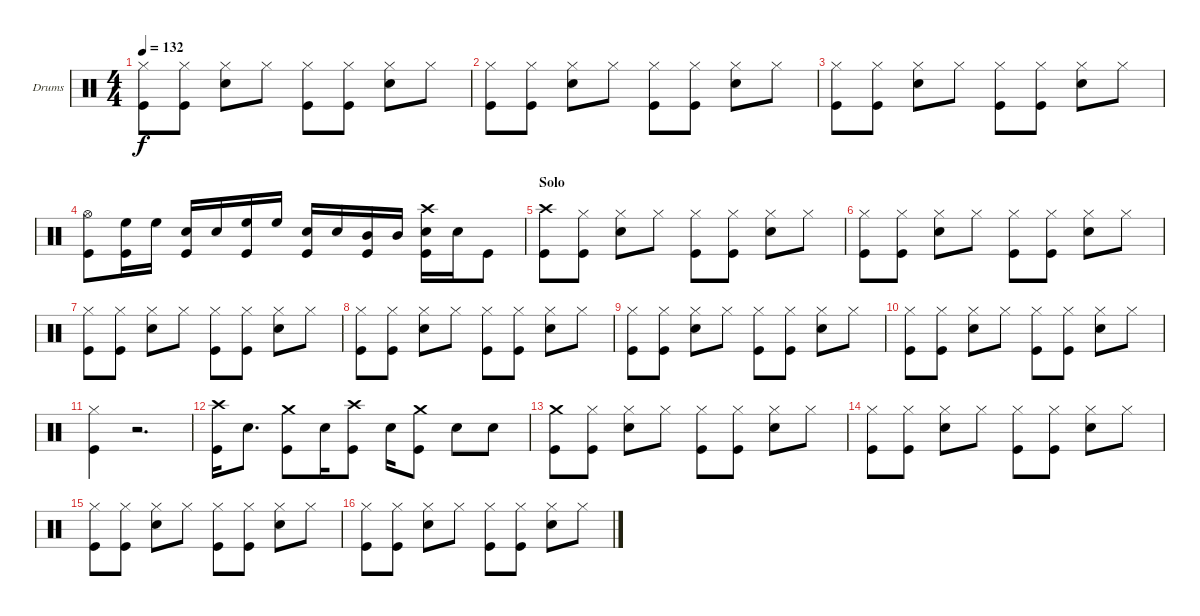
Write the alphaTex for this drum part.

\bracketExtendMode groupsimilarinstruments
\firstSystemTrackNameOrientation horizontal
\otherSystemsTrackNameOrientation horizontal
\track ("Drumkit" "Drums") {instrument percussion}
\staff {score}
\articulation defaults
\ts (4 4)
\tempo 132
\clef neutral
\ks c
("Kick (hit)" "Hi-Hat (closed)").8{dy f} ("Kick (hit)" "Hi-Hat (closed)").8 ("Snare (hit) 2" "Hi-Hat (closed)").8 "Hi-Hat (closed)".8 ("Kick (hit)" "Hi-Hat (closed)").8 ("Kick (hit)" "Hi-Hat (closed)").8 ("Snare (hit) 2" "Hi-Hat (closed)").8 "Hi-Hat (closed)".8 |
("Kick (hit)" "Hi-Hat (closed)").8 ("Kick (hit)" "Hi-Hat (closed)").8 ("Snare (hit) 2" "Hi-Hat (closed)").8 "Hi-Hat (closed)".8 ("Kick (hit)" "Hi-Hat (closed)").8 ("Kick (hit)" "Hi-Hat (closed)").8 ("Snare (hit) 2" "Hi-Hat (closed)").8 "Hi-Hat (closed)".8 |
("Kick (hit)" "Hi-Hat (closed)").8 ("Kick (hit)" "Hi-Hat (closed)").8 ("Snare (hit) 2" "Hi-Hat (closed)").8 "Hi-Hat (closed)".8 ("Kick (hit)" "Hi-Hat (closed)").8 ("Kick (hit)" "Hi-Hat (closed)").8 ("Snare (hit) 2" "Hi-Hat (closed)").8 "Hi-Hat (closed)".8 |
("Kick (hit)" "Hi-Hat (open)").8 ("Kick (hit)" "High Floor Tom (hit)").16 "High Floor Tom (hit)".16 ("Kick (hit)" "Snare (hit) 2").16 "Snare (hit) 2".16 ("Kick (hit)" "High Floor Tom (hit)").16 "High Floor Tom (hit)".16 ("Kick (hit)" "Snare (hit) 2").16 "Snare (hit) 2".16 ("Kick (hit)" "Mid Tom (hit)").16 "Mid Tom (hit)".16 ("Kick (hit)" "Snare (hit) 2" "Crash high (hit)").16 "Snare (hit) 2".16 "Kick (hit)".8 |
\section ("" "Solo")
("Kick (hit)" "Crash high (hit)").8 ("Kick (hit)" "Hi-Hat (closed)").8 ("Snare (hit) 2" "Hi-Hat (closed)").8 "Hi-Hat (closed)".8 ("Kick (hit)" "Hi-Hat (closed)").8 ("Kick (hit)" "Hi-Hat (closed)").8 ("Snare (hit) 2" "Hi-Hat (closed)").8 "Hi-Hat (closed)".8 |
("Kick (hit)" "Hi-Hat (closed)").8 ("Kick (hit)" "Hi-Hat (closed)").8 ("Snare (hit) 2" "Hi-Hat (closed)").8 "Hi-Hat (closed)".8 ("Kick (hit)" "Hi-Hat (closed)").8 ("Kick (hit)" "Hi-Hat (closed)").8 ("Snare (hit) 2" "Hi-Hat (closed)").8 "Hi-Hat (closed)".8 |
("Kick (hit)" "Hi-Hat (closed)").8 ("Kick (hit)" "Hi-Hat (closed)").8 ("Snare (hit) 2" "Hi-Hat (closed)").8 "Hi-Hat (closed)".8 ("Kick (hit)" "Hi-Hat (closed)").8 ("Kick (hit)" "Hi-Hat (closed)").8 ("Snare (hit) 2" "Hi-Hat (closed)").8 "Hi-Hat (closed)".8 |
("Kick (hit)" "Hi-Hat (closed)").8 ("Kick (hit)" "Hi-Hat (closed)").8 ("Snare (hit) 2" "Hi-Hat (closed)").8 "Hi-Hat (closed)".8 ("Kick (hit)" "Hi-Hat (closed)").8 ("Kick (hit)" "Hi-Hat (closed)").8 ("Snare (hit) 2" "Hi-Hat (closed)").8 "Hi-Hat (closed)".8 |
("Kick (hit)" "Hi-Hat (closed)").8 ("Kick (hit)" "Hi-Hat (closed)").8 ("Snare (hit) 2" "Hi-Hat (closed)").8 "Hi-Hat (closed)".8 ("Kick (hit)" "Hi-Hat (closed)").8 ("Kick (hit)" "Hi-Hat (closed)").8 ("Snare (hit) 2" "Hi-Hat (closed)").8 "Hi-Hat (closed)".8 |
("Kick (hit)" "Hi-Hat (closed)").8 ("Kick (hit)" "Hi-Hat (closed)").8 ("Snare (hit) 2" "Hi-Hat (closed)").8 "Hi-Hat (closed)".8 ("Kick (hit)" "Hi-Hat (closed)").8 ("Kick (hit)" "Hi-Hat (closed)").8 ("Snare (hit) 2" "Hi-Hat (closed)").8 "Hi-Hat (closed)".8 |
("Kick (hit)" "Hi-Hat (closed)").4 r.2{d} |
("Kick (hit)" "Crash high (hit)").16 "Snare (hit) 2".8{d} ("Kick (hit)" "Crash medium (hit)").8 "Snare (hit) 2".16 ("Kick (hit)" "Crash high (hit)").8 "Snare (hit) 2".16 ("Kick (hit)" "Crash medium (hit)").8 "Snare (hit) 2".8 "Snare (hit) 2".8 |
("Kick (hit)" "Crash medium (hit)").8 ("Kick (hit)" "Hi-Hat (closed)").8 ("Snare (hit) 2" "Hi-Hat (closed)").8 "Hi-Hat (closed)".8 ("Kick (hit)" "Hi-Hat (closed)").8 ("Kick (hit)" "Hi-Hat (closed)").8 ("Snare (hit) 2" "Hi-Hat (closed)").8 "Hi-Hat (closed)".8 |
("Kick (hit)" "Hi-Hat (closed)").8 ("Kick (hit)" "Hi-Hat (closed)").8 ("Snare (hit) 2" "Hi-Hat (closed)").8 "Hi-Hat (closed)".8 ("Kick (hit)" "Hi-Hat (closed)").8 ("Kick (hit)" "Hi-Hat (closed)").8 ("Snare (hit) 2" "Hi-Hat (closed)").8 "Hi-Hat (closed)".8 |
("Kick (hit)" "Hi-Hat (closed)").8 ("Kick (hit)" "Hi-Hat (closed)").8 ("Snare (hit) 2" "Hi-Hat (closed)").8 "Hi-Hat (closed)".8 ("Kick (hit)" "Hi-Hat (closed)").8 ("Kick (hit)" "Hi-Hat (closed)").8 ("Snare (hit) 2" "Hi-Hat (closed)").8 "Hi-Hat (closed)".8 |
("Kick (hit)" "Hi-Hat (closed)").8 ("Kick (hit)" "Hi-Hat (closed)").8 ("Snare (hit) 2" "Hi-Hat (closed)").8 "Hi-Hat (closed)".8 ("Kick (hit)" "Hi-Hat (closed)").8 ("Kick (hit)" "Hi-Hat (closed)").8 ("Snare (hit) 2" "Hi-Hat (closed)").8 "Hi-Hat (closed)".8
